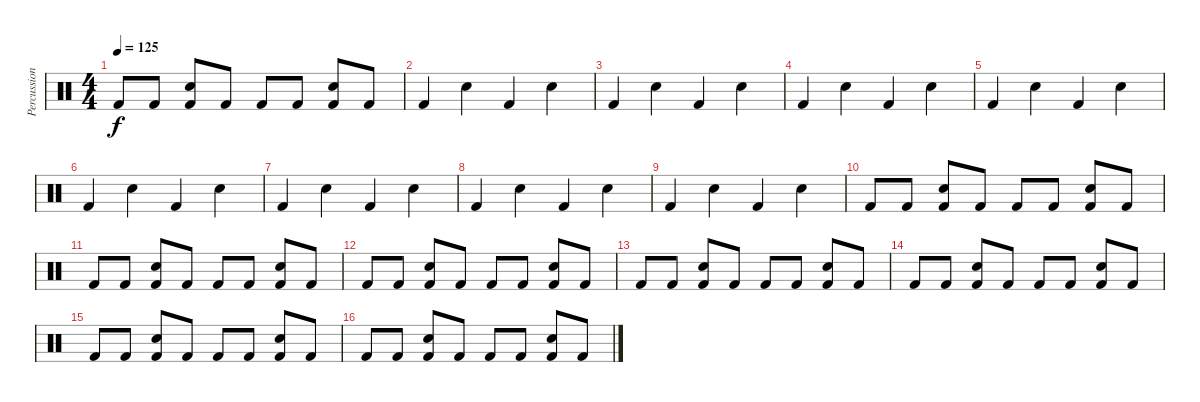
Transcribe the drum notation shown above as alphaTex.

\track ("Percussion" "Percussion") {instrument percussion}
\staff {score}
\articulation defaults
\ts (4 4)
\tempo 125
\clef neutral
\ks c "Kick (hit) 2".8{dy f} "Kick (hit) 2".8
("Kick (hit) 2" "Electric Snare (hit)").8 "Kick (hit) 2".8 "Kick (hit) 2".8 "Kick (hit) 2".8 ("Kick (hit) 2" "Electric Snare (hit)").8 "Kick (hit) 2".8 |
"Kick (hit) 2".4 "Hand Clap (hit)".4 "Kick (hit) 2".4 "Hand Clap (hit)".4 |
"Kick (hit) 2".4 "Hand Clap (hit)".4 "Kick (hit) 2".4 "Hand Clap (hit)".4 |
"Kick (hit) 2".4 "Hand Clap (hit)".4 "Kick (hit) 2".4 "Hand Clap (hit)".4 |
"Kick (hit) 2".4 "Hand Clap (hit)".4 "Kick (hit) 2".4 "Hand Clap (hit)".4 |
"Kick (hit) 2".4 "Hand Clap (hit)".4 "Kick (hit) 2".4 "Hand Clap (hit)".4 |
"Kick (hit) 2".4 "Hand Clap (hit)".4 "Kick (hit) 2".4 "Hand Clap (hit)".4 |
"Kick (hit) 2".4 "Hand Clap (hit)".4 "Kick (hit) 2".4 "Hand Clap (hit)".4 |
"Kick (hit) 2".4 "Hand Clap (hit)".4 "Kick (hit) 2".4 "Hand Clap (hit)".4 |
"Kick (hit) 2".8 "Kick (hit) 2".8 ("Kick (hit) 2" "Electric Snare (hit)").8 "Kick (hit) 2".8 "Kick (hit) 2".8 "Kick (hit) 2".8 ("Kick (hit) 2" "Electric Snare (hit)").8 "Kick (hit) 2".8 |
"Kick (hit) 2".8 "Kick (hit) 2".8 ("Kick (hit) 2" "Electric Snare (hit)").8 "Kick (hit) 2".8 "Kick (hit) 2".8 "Kick (hit) 2".8 ("Kick (hit) 2" "Electric Snare (hit)").8 "Kick (hit) 2".8 |
"Kick (hit) 2".8 "Kick (hit) 2".8 ("Kick (hit) 2" "Electric Snare (hit)").8 "Kick (hit) 2".8 "Kick (hit) 2".8 "Kick (hit) 2".8 ("Kick (hit) 2" "Electric Snare (hit)").8 "Kick (hit) 2".8 |
"Kick (hit) 2".8 "Kick (hit) 2".8 ("Kick (hit) 2" "Electric Snare (hit)").8 "Kick (hit) 2".8 "Kick (hit) 2".8 "Kick (hit) 2".8 ("Kick (hit) 2" "Electric Snare (hit)").8 "Kick (hit) 2".8 |
"Kick (hit) 2".8 "Kick (hit) 2".8 ("Kick (hit) 2" "Electric Snare (hit)").8 "Kick (hit) 2".8 "Kick (hit) 2".8 "Kick (hit) 2".8 ("Kick (hit) 2" "Electric Snare (hit)").8 "Kick (hit) 2".8 |
"Kick (hit) 2".8 "Kick (hit) 2".8 ("Kick (hit) 2" "Electric Snare (hit)").8 "Kick (hit) 2".8 "Kick (hit) 2".8 "Kick (hit) 2".8 ("Kick (hit) 2" "Electric Snare (hit)").8 "Kick (hit) 2".8 |
"Kick (hit) 2".8 "Kick (hit) 2".8 ("Kick (hit) 2" "Electric Snare (hit)").8 "Kick (hit) 2".8 "Kick (hit) 2".8 "Kick (hit) 2".8 ("Kick (hit) 2" "Electric Snare (hit)").8 "Kick (hit) 2".8
